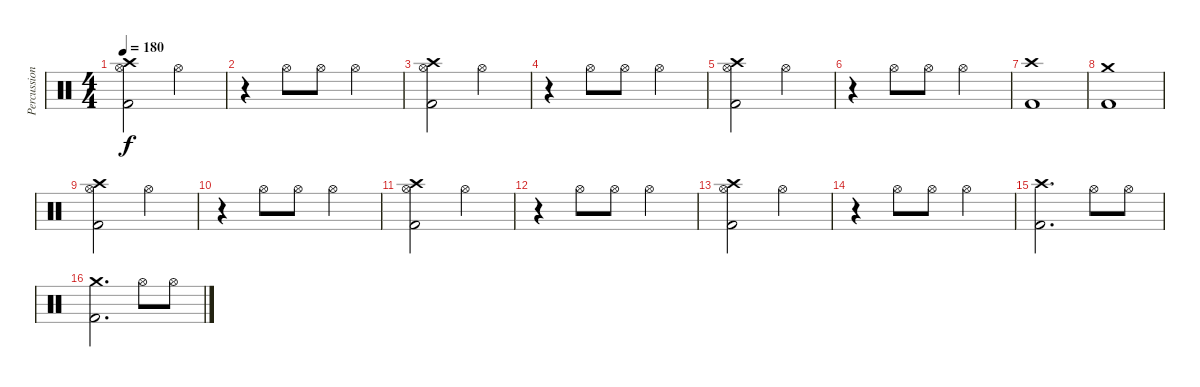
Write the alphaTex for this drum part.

\track ("Percussion" "Percussion") {instrument percussion}
\staff {score}
\articulation defaults
\ts (4 4)
\tempo 180
\clef neutral
\ks c
("Crash high (hit)" "Hi-Hat (open)" "Kick (hit) 2").2{dy f} "Hi-Hat (open)".2 |
r.4 "Hi-Hat (open)".8 "Hi-Hat (open)".8 "Hi-Hat (open)".2 |
("Crash high (hit)" "Hi-Hat (open)" "Kick (hit) 2").2 "Hi-Hat (open)".2 |
r.4 "Hi-Hat (open)".8 "Hi-Hat (open)".8 "Hi-Hat (open)".2 |
("Crash high (hit)" "Hi-Hat (open)" "Kick (hit) 2").2 "Hi-Hat (open)".2 |
r.4 "Hi-Hat (open)".8 "Hi-Hat (open)".8 "Hi-Hat (open)".2 |
("Crash high (hit)" "Kick (hit) 2").1 |
("Crash medium (hit)" "Kick (hit) 2").1 |
("Crash high (hit)" "Hi-Hat (open)" "Kick (hit) 2").2 "Hi-Hat (open)".2 |
r.4 "Hi-Hat (open)".8 "Hi-Hat (open)".8 "Hi-Hat (open)".2 |
("Crash high (hit)" "Hi-Hat (open)" "Kick (hit) 2").2 "Hi-Hat (open)".2 |
r.4 "Hi-Hat (open)".8 "Hi-Hat (open)".8 "Hi-Hat (open)".2 |
("Crash high (hit)" "Hi-Hat (open)" "Kick (hit) 2").2 "Hi-Hat (open)".2 |
r.4 "Hi-Hat (open)".8 "Hi-Hat (open)".8 "Hi-Hat (open)".2 |
("Crash high (hit)" "Kick (hit) 2").2{d} "Hi-Hat (open)".8 "Hi-Hat (open)".8 |
("Crash medium (hit)" "Kick (hit) 2").2{d} "Hi-Hat (open)".8 "Hi-Hat (open)".8
